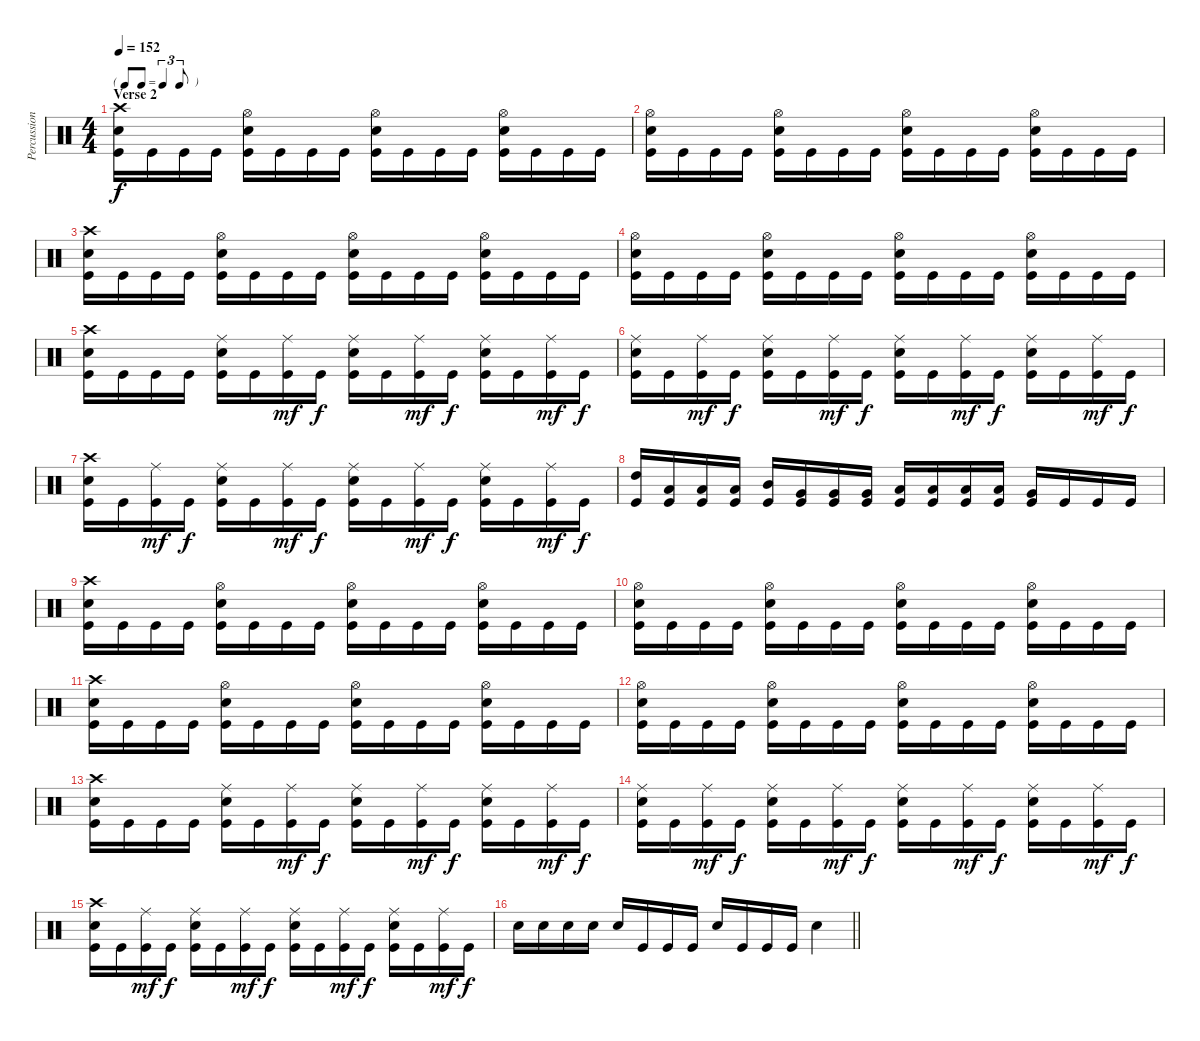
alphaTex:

\track ("Percussion" "Percussion") {instrument percussion}
\staff {score}
\articulation defaults
\ts (4 4)
\tf triplet8th
\section ("" "Verse 2")
\tempo 152
\clef neutral
\ks c
("Crash high (hit)" "Snare (hit) 2" "Kick (hit)").16{dy f} "Kick (hit)".16 "Kick (hit)".16 "Kick (hit)".16 ("Snare (hit) 2" "Hi-Hat (open)" "Kick (hit)").16 "Kick (hit)".16 "Kick (hit)".16 "Kick (hit)".16 ("Hi-Hat (open)" "Snare (hit) 2" "Kick (hit)").16 "Kick (hit)".16 "Kick (hit)".16 "Kick (hit)".16 ("Snare (hit) 2" "Hi-Hat (open)" "Kick (hit)").16 "Kick (hit)".16 "Kick (hit)".16 "Kick (hit)".16 |
("Snare (hit) 2" "Hi-Hat (open)" "Kick (hit)").16 "Kick (hit)".16 "Kick (hit)".16 "Kick (hit)".16 ("Snare (hit) 2" "Hi-Hat (open)" "Kick (hit)").16 "Kick (hit)".16 "Kick (hit)".16 "Kick (hit)".16 ("Snare (hit) 2" "Hi-Hat (open)" "Kick (hit)").16 "Kick (hit)".16 "Kick (hit)".16 "Kick (hit)".16 ("Snare (hit) 2" "Hi-Hat (open)" "Kick (hit)").16 "Kick (hit)".16 "Kick (hit)".16 "Kick (hit)".16 |
("Crash high (hit)" "Snare (hit) 2" "Kick (hit)").16 "Kick (hit)".16 "Kick (hit)".16 "Kick (hit)".16 ("Snare (hit) 2" "Hi-Hat (open)" "Kick (hit)").16 "Kick (hit)".16 "Kick (hit)".16 "Kick (hit)".16 ("Hi-Hat (open)" "Snare (hit) 2" "Kick (hit)").16 "Kick (hit)".16 "Kick (hit)".16 "Kick (hit)".16 ("Snare (hit) 2" "Hi-Hat (open)" "Kick (hit)").16 "Kick (hit)".16 "Kick (hit)".16 "Kick (hit)".16 |
("Snare (hit) 2" "Hi-Hat (open)" "Kick (hit)").16 "Kick (hit)".16 "Kick (hit)".16 "Kick (hit)".16 ("Snare (hit) 2" "Hi-Hat (open)" "Kick (hit)").16 "Kick (hit)".16 "Kick (hit)".16 "Kick (hit)".16 ("Snare (hit) 2" "Hi-Hat (open)" "Kick (hit)").16 "Kick (hit)".16 "Kick (hit)".16 "Kick (hit)".16 ("Snare (hit) 2" "Hi-Hat (open)" "Kick (hit)").16 "Kick (hit)".16 "Kick (hit)".16 "Kick (hit)".16 |
("Kick (hit)" "Crash high (hit)" "Snare (hit) 2").16 "Kick (hit)".16 "Kick (hit)".16 "Kick (hit)".16 ("Ride (middle)" "Snare (hit) 2" "Kick (hit)").16 "Kick (hit)".16 ("Ride (middle)" "Kick (hit)").16{dy mf} "Kick (hit)".16{dy f} ("Ride (middle)" "Snare (hit) 2" "Kick (hit)").16 "Kick (hit)".16 ("Ride (middle)" "Kick (hit)").16{dy mf} "Kick (hit)".16{dy f} ("Ride (middle)" "Snare (hit) 2" "Kick (hit)").16 "Kick (hit)".16 ("Ride (middle)" "Kick (hit)").16{dy mf} "Kick (hit)".16{dy f} |
("Ride (middle)" "Snare (hit) 2" "Kick (hit)").16 "Kick (hit)".16 ("Ride (middle)" "Kick (hit)").16{dy mf} "Kick (hit)".16{dy f} ("Ride (middle)" "Snare (hit) 2" "Kick (hit)").16 "Kick (hit)".16 ("Ride (middle)" "Kick (hit)").16{dy mf} "Kick (hit)".16{dy f} ("Ride (middle)" "Snare (hit) 2" "Kick (hit)").16 "Kick (hit)".16 ("Ride (middle)" "Kick (hit)").16{dy mf} "Kick (hit)".16{dy f} ("Ride (middle)" "Snare (hit) 2" "Kick (hit)").16 "Kick (hit)".16 ("Ride (middle)" "Kick (hit)").16{dy mf} "Kick (hit)".16{dy f} |
("Kick (hit)" "Crash high (hit)" "Snare (hit) 2").16 "Kick (hit)".16 ("Ride (middle)" "Kick (hit)").16{dy mf} "Kick (hit)".16{dy f} ("Ride (middle)" "Snare (hit) 2" "Kick (hit)").16 "Kick (hit)".16 ("Ride (middle)" "Kick (hit)").16{dy mf} "Kick (hit)".16{dy f} ("Ride (middle)" "Snare (hit) 2" "Kick (hit)").16 "Kick (hit)".16 ("Ride (middle)" "Kick (hit)").16{dy mf} "Kick (hit)".16{dy f} ("Ride (middle)" "Snare (hit) 2" "Kick (hit)").16 "Kick (hit)".16 ("Ride (middle)" "Kick (hit)").16{dy mf} "Kick (hit)".16{dy f} |
("High Tom (hit)" "Kick (hit)").16 ("Low Tom (hit)" "Kick (hit)").16 ("Low Tom (hit)" "Kick (hit)").16 ("Low Tom (hit)" "Kick (hit)").16 ("Mid Tom (hit)" "Kick (hit)").16 ("Very Low Tom (hit)" "Kick (hit)").16 ("Very Low Tom (hit)" "Kick (hit)").16 ("Very Low Tom (hit)" "Kick (hit)").16 ("Low Tom (hit)" "Kick (hit)").16 ("Low Floor Tom (hit)" "Kick (hit)").16 ("Low Floor Tom (hit)" "Kick (hit)").16 ("Low Floor Tom (hit)" "Kick (hit)").16 ("Very Low Tom (hit)" "Kick (hit)").16 "Kick (hit)".16 "Kick (hit)".16 "Kick (hit)".16 |
("Crash high (hit)" "Snare (hit) 2" "Kick (hit)").16 "Kick (hit)".16 "Kick (hit)".16 "Kick (hit)".16 ("Snare (hit) 2" "Hi-Hat (open)" "Kick (hit)").16 "Kick (hit)".16 "Kick (hit)".16 "Kick (hit)".16 ("Hi-Hat (open)" "Snare (hit) 2" "Kick (hit)").16 "Kick (hit)".16 "Kick (hit)".16 "Kick (hit)".16 ("Snare (hit) 2" "Hi-Hat (open)" "Kick (hit)").16 "Kick (hit)".16 "Kick (hit)".16 "Kick (hit)".16 |
("Snare (hit) 2" "Hi-Hat (open)" "Kick (hit)").16 "Kick (hit)".16 "Kick (hit)".16 "Kick (hit)".16 ("Snare (hit) 2" "Hi-Hat (open)" "Kick (hit)").16 "Kick (hit)".16 "Kick (hit)".16 "Kick (hit)".16 ("Snare (hit) 2" "Hi-Hat (open)" "Kick (hit)").16 "Kick (hit)".16 "Kick (hit)".16 "Kick (hit)".16 ("Snare (hit) 2" "Hi-Hat (open)" "Kick (hit)").16 "Kick (hit)".16 "Kick (hit)".16 "Kick (hit)".16 |
("Crash high (hit)" "Snare (hit) 2" "Kick (hit)").16 "Kick (hit)".16 "Kick (hit)".16 "Kick (hit)".16 ("Snare (hit) 2" "Hi-Hat (open)" "Kick (hit)").16 "Kick (hit)".16 "Kick (hit)".16 "Kick (hit)".16 ("Hi-Hat (open)" "Snare (hit) 2" "Kick (hit)").16 "Kick (hit)".16 "Kick (hit)".16 "Kick (hit)".16 ("Snare (hit) 2" "Hi-Hat (open)" "Kick (hit)").16 "Kick (hit)".16 "Kick (hit)".16 "Kick (hit)".16 |
("Snare (hit) 2" "Hi-Hat (open)" "Kick (hit)").16 "Kick (hit)".16 "Kick (hit)".16 "Kick (hit)".16 ("Snare (hit) 2" "Hi-Hat (open)" "Kick (hit)").16 "Kick (hit)".16 "Kick (hit)".16 "Kick (hit)".16 ("Snare (hit) 2" "Hi-Hat (open)" "Kick (hit)").16 "Kick (hit)".16 "Kick (hit)".16 "Kick (hit)".16 ("Snare (hit) 2" "Hi-Hat (open)" "Kick (hit)").16 "Kick (hit)".16 "Kick (hit)".16 "Kick (hit)".16 |
("Kick (hit)" "Crash high (hit)" "Snare (hit) 2").16 "Kick (hit)".16 "Kick (hit)".16 "Kick (hit)".16 ("Ride (middle)" "Snare (hit) 2" "Kick (hit)").16 "Kick (hit)".16 ("Ride (middle)" "Kick (hit)").16{dy mf} "Kick (hit)".16{dy f} ("Ride (middle)" "Snare (hit) 2" "Kick (hit)").16 "Kick (hit)".16 ("Ride (middle)" "Kick (hit)").16{dy mf} "Kick (hit)".16{dy f} ("Ride (middle)" "Snare (hit) 2" "Kick (hit)").16 "Kick (hit)".16 ("Ride (middle)" "Kick (hit)").16{dy mf} "Kick (hit)".16{dy f} |
("Ride (middle)" "Snare (hit) 2" "Kick (hit)").16 "Kick (hit)".16 ("Ride (middle)" "Kick (hit)").16{dy mf} "Kick (hit)".16{dy f} ("Ride (middle)" "Snare (hit) 2" "Kick (hit)").16 "Kick (hit)".16 ("Ride (middle)" "Kick (hit)").16{dy mf} "Kick (hit)".16{dy f} ("Ride (middle)" "Snare (hit) 2" "Kick (hit)").16 "Kick (hit)".16 ("Ride (middle)" "Kick (hit)").16{dy mf} "Kick (hit)".16{dy f} ("Ride (middle)" "Snare (hit) 2" "Kick (hit)").16 "Kick (hit)".16 ("Ride (middle)" "Kick (hit)").16{dy mf} "Kick (hit)".16{dy f} |
("Kick (hit)" "Crash high (hit)" "Snare (hit) 2").16 "Kick (hit)".16 ("Ride (middle)" "Kick (hit)").16{dy mf} "Kick (hit)".16{dy f} ("Ride (middle)" "Snare (hit) 2" "Kick (hit)").16 "Kick (hit)".16 ("Ride (middle)" "Kick (hit)").16{dy mf} "Kick (hit)".16{dy f} ("Ride (middle)" "Snare (hit) 2" "Kick (hit)").16 "Kick (hit)".16 ("Ride (middle)" "Kick (hit)").16{dy mf} "Kick (hit)".16{dy f} ("Ride (middle)" "Snare (hit) 2" "Kick (hit)").16 "Kick (hit)".16 ("Ride (middle)" "Kick (hit)").16{dy mf} "Kick (hit)".16{dy f} |
\barLineRight lightlight "Snare (hit) 2".16 "Snare (hit) 2".16 "Snare (hit) 2".16 "Snare (hit) 2".16 "Snare (hit) 2".16 "Kick (hit)".16 "Kick (hit)".16 "Kick (hit)".16 "Snare (hit) 2".16 "Kick (hit)".16 "Kick (hit)".16 "Kick (hit)".16 "Snare (hit) 2".4
